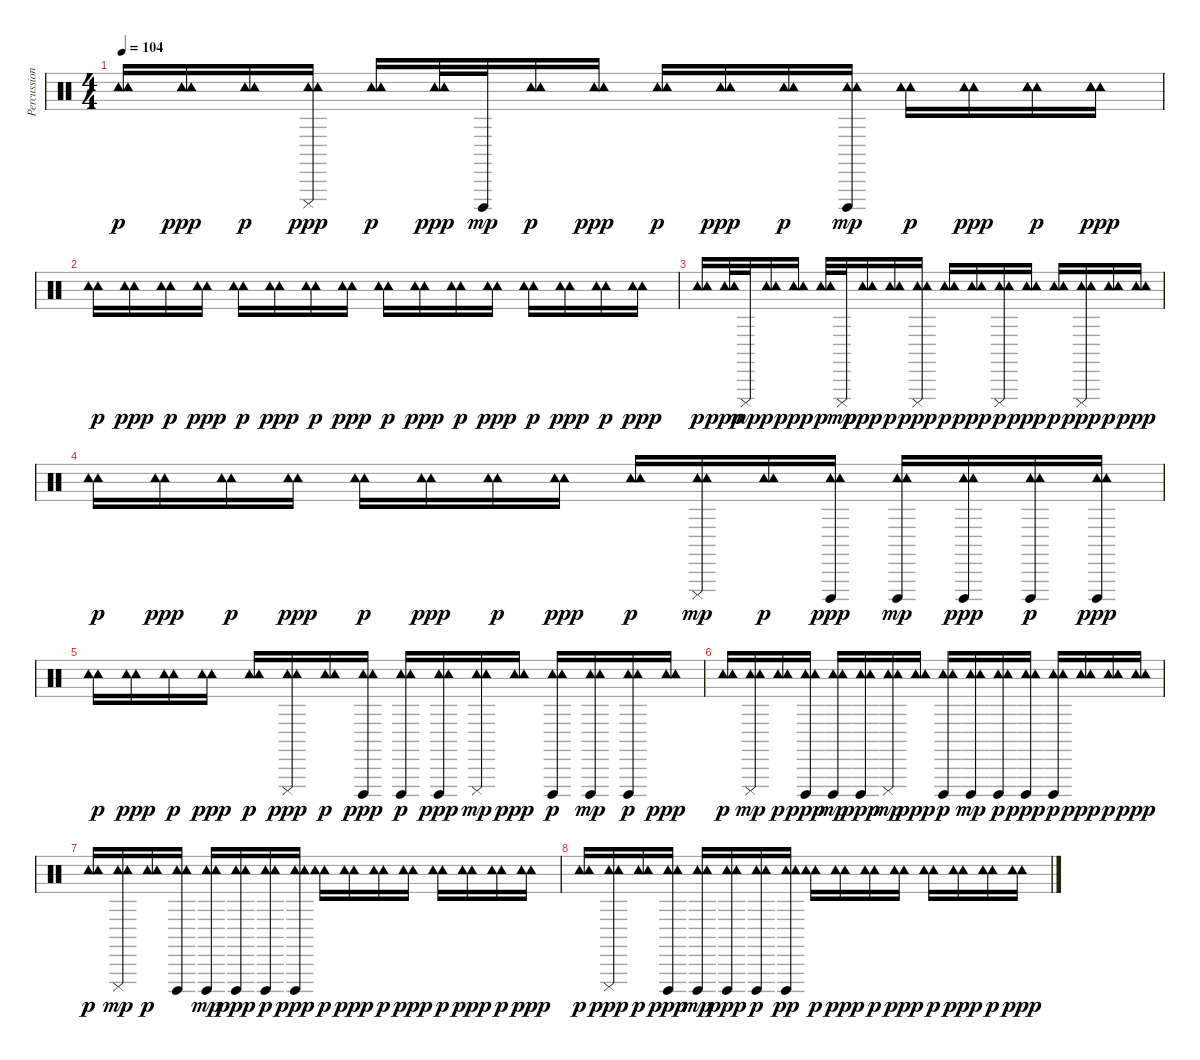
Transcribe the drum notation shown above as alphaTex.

\track ("Percussion & Drums" "Percussion") {instrument percussion}
\staff {score}
\articulation defaults
\ts (4 4)
\tempo 104
\clef neutral
\ks c
("Tambourine (hit)" "Tambourine (hit)").16{dy p} ("Tambourine (hit)" "Tambourine (hit)").16{dy ppp} ("Tambourine (hit)" "Tambourine (hit)").16{dy p} ("Cuica (mute)" "Tambourine (hit)" "Tambourine (hit)").16{dy ppp} ("Tambourine (hit)" "Tambourine (hit)").16{dy p} ("Tambourine (hit)" "Tambourine (hit)").32{dy ppp} "Cuica (open)".32{dy mp} ("Tambourine (hit)" "Tambourine (hit)").16{dy p} ("Tambourine (hit)" "Tambourine (hit)").16{dy ppp} ("Tambourine (hit)" "Tambourine (hit)").16{dy p} ("Tambourine (hit)" "Tambourine (hit)").16{dy ppp} ("Tambourine (hit)" "Tambourine (hit)").16{dy p} ("Tambourine (hit)" "Tambourine (hit)" "Cuica (open)").16{dy mp} ("Tambourine (hit)" "Tambourine (hit)").16{dy p} ("Tambourine (hit)" "Tambourine (hit)").16{dy ppp} ("Tambourine (hit)" "Tambourine (hit)" "Tambourine (hit)" "Tambourine (hit)").16{dy p} ("Tambourine (hit)" "Tambourine (hit)" "Tambourine (hit)" "Tambourine (hit)").16{dy ppp} |
("Tambourine (hit)" "Tambourine (hit)").16{dy p} ("Tambourine (hit)" "Tambourine (hit)").16{dy ppp} ("Tambourine (hit)" "Tambourine (hit)").16{dy p} ("Tambourine (hit)" "Tambourine (hit)").16{dy ppp} ("Tambourine (hit)" "Tambourine (hit)").16{dy p} ("Tambourine (hit)" "Tambourine (hit)").16{dy ppp} ("Tambourine (hit)" "Tambourine (hit)").16{dy p} ("Tambourine (hit)" "Tambourine (hit)").16{dy ppp} ("Tambourine (hit)" "Tambourine (hit)").16{dy p} ("Tambourine (hit)" "Tambourine (hit)").16{dy ppp} ("Tambourine (hit)" "Tambourine (hit)").16{dy p} ("Tambourine (hit)" "Tambourine (hit)").16{dy ppp} ("Tambourine (hit)" "Tambourine (hit)").16{dy p} ("Tambourine (hit)" "Tambourine (hit)").16{dy ppp} ("Tambourine (hit)" "Tambourine (hit)").16{dy p} ("Tambourine (hit)" "Tambourine (hit)").16{dy ppp} |
("Tambourine (hit)" "Tambourine (hit)").16{dy p} ("Tambourine (hit)" "Tambourine (hit)").32{dy ppp} "Cuica (mute)".32{dy mp} ("Tambourine (hit)" "Tambourine (hit)").16{dy p} ("Tambourine (hit)" "Tambourine (hit)").16{dy ppp} ("Tambourine (hit)" "Tambourine (hit)").32{dy p} "Cuica (mute)".32{dy mp} ("Tambourine (hit)" "Tambourine (hit)").16{dy ppp} ("Tambourine (hit)" "Tambourine (hit)").16{dy p} ("Cuica (mute)" "Tambourine (hit)" "Tambourine (hit)").16{dy ppp} ("Tambourine (hit)" "Tambourine (hit)").16{dy p} ("Tambourine (hit)" "Tambourine (hit)").16{dy ppp} ("Cuica (mute)" "Tambourine (hit)" "Tambourine (hit)").16{dy p} ("Tambourine (hit)" "Tambourine (hit)").16{dy ppp} ("Tambourine (hit)" "Tambourine (hit)").16{dy p} ("Cuica (mute)" "Tambourine (hit)" "Tambourine (hit)").16{dy ppp} ("Tambourine (hit)" "Tambourine (hit)").16{dy p} ("Tambourine (hit)" "Tambourine (hit)").16{dy ppp} |
("Tambourine (hit)" "Tambourine (hit)").16{dy p} ("Tambourine (hit)" "Tambourine (hit)").16{dy ppp} ("Tambourine (hit)" "Tambourine (hit)").16{dy p} ("Tambourine (hit)" "Tambourine (hit)").16{dy ppp} ("Tambourine (hit)" "Tambourine (hit)").16{dy p} ("Tambourine (hit)" "Tambourine (hit)").16{dy ppp} ("Tambourine (hit)" "Tambourine (hit)").16{dy p} ("Tambourine (hit)" "Tambourine (hit)").16{dy ppp} ("Tambourine (hit)" "Tambourine (hit)").16{dy p} ("Tambourine (hit)" "Tambourine (hit)" "Cuica (mute)").16{dy mp} ("Tambourine (hit)" "Tambourine (hit)").16{dy p} ("Tambourine (hit)" "Cuica (open)" "Tambourine (hit)").16{dy ppp} ("Tambourine (hit)" "Tambourine (hit)" "Cuica (open)").16{dy mp} ("Cuica (open)" "Tambourine (hit)" "Tambourine (hit)").16{dy ppp} ("Cuica (open)" "Tambourine (hit)" "Tambourine (hit)").16{dy p} ("Tambourine (hit)" "Cuica (open)" "Tambourine (hit)").16{dy ppp} |
("Tambourine (hit)" "Tambourine (hit)").16{dy p} ("Tambourine (hit)" "Tambourine (hit)").16{dy ppp} ("Tambourine (hit)" "Tambourine (hit)").16{dy p} ("Tambourine (hit)" "Tambourine (hit)").16{dy ppp} ("Tambourine (hit)" "Tambourine (hit)").16{dy p} ("Tambourine (hit)" "Cuica (mute)" "Tambourine (hit)").16{dy ppp} ("Tambourine (hit)" "Tambourine (hit)").16{dy p} ("Cuica (open)" "Tambourine (hit)" "Tambourine (hit)").16{dy ppp} ("Cuica (open)" "Tambourine (hit)" "Tambourine (hit)").16{dy p} ("Cuica (open)" "Tambourine (hit)" "Tambourine (hit)").16{dy ppp} ("Tambourine (hit)" "Tambourine (hit)" "Cuica (mute)").16{dy mp} ("Tambourine (hit)" "Tambourine (hit)").16{dy ppp} ("Tambourine (hit)" "Cuica (open)" "Tambourine (hit)").16{dy p} ("Tambourine (hit)" "Tambourine (hit)" "Cuica (open)").16{dy mp} ("Tambourine (hit)" "Cuica (open)" "Tambourine (hit)").16{dy p} ("Tambourine (hit)" "Tambourine (hit)").16{dy ppp} |
("Tambourine (hit)" "Tambourine (hit)").16{dy p} ("Tambourine (hit)" "Tambourine (hit)" "Cuica (mute)").16{dy mp} ("Tambourine (hit)" "Tambourine (hit)").16{dy p} ("Tambourine (hit)" "Cuica (open)" "Tambourine (hit)").16{dy ppp} ("Tambourine (hit)" "Tambourine (hit)" "Cuica (open)").16{dy mp} ("Tambourine (hit)" "Cuica (open)" "Tambourine (hit)").16{dy ppp} ("Tambourine (hit)" "Tambourine (hit)" "Cuica (mute)").16{dy mp} ("Tambourine (hit)" "Tambourine (hit)").16{dy ppp} ("Tambourine (hit)" "Cuica (open)" "Tambourine (hit)").16{dy p} ("Tambourine (hit)" "Tambourine (hit)" "Cuica (open)").16{dy mp} ("Tambourine (hit)" "Cuica (open)" "Tambourine (hit)").16{dy p} ("Tambourine (hit)" "Cuica (open)" "Tambourine (hit)").16{dy ppp} ("Cuica (open)" "Tambourine (hit)" "Tambourine (hit)").16{dy p} ("Tambourine (hit)" "Tambourine (hit)").16{dy ppp} ("Tambourine (hit)" "Tambourine (hit)").16{dy p} ("Tambourine (hit)" "Tambourine (hit)").16{dy ppp volume 13} |
("Tambourine (hit)" "Tambourine (hit)").16{dy p} ("Tambourine (hit)" "Tambourine (hit)" "Cuica (mute)").16{dy mp volume 12} ("Tambourine (hit)" "Tambourine (hit)").16{dy p volume 12} ("Tambourine (hit)" "Cuica (open)" "Tambourine (hit)").16 ("Tambourine (hit)" "Tambourine (hit)" "Cuica (open)").16{dy mp volume 12} ("Tambourine (hit)" "Cuica (open)" "Tambourine (hit)").16{dy ppp volume 12} ("Tambourine (hit)" "Tambourine (hit)" "Cuica (open)").16{dy p} ("Tambourine (hit)" "Cuica (open)" "Tambourine (hit)").16{dy ppp volume 12} ("Tambourine (hit)" "Tambourine (hit)").16{dy p volume 12} ("Tambourine (hit)" "Tambourine (hit)").16{dy ppp volume 12} ("Tambourine (hit)" "Tambourine (hit)").16{dy p} ("Tambourine (hit)" "Tambourine (hit)").16{dy ppp volume 12} ("Tambourine (hit)" "Tambourine (hit)").16{dy p volume 12} ("Tambourine (hit)" "Tambourine (hit)").16{dy ppp} ("Tambourine (hit)" "Tambourine (hit)").16{dy p volume 11} ("Tambourine (hit)" "Tambourine (hit)").16{dy ppp volume 11} |
("Tambourine (hit)" "Tambourine (hit)").16{dy p volume 11} ("Cuica (mute)" "Tambourine (hit)" "Tambourine (hit)").16{dy ppp} ("Tambourine (hit)" "Tambourine (hit)").16{dy p volume 11} ("Cuica (open)" "Tambourine (hit)" "Tambourine (hit)").16{dy ppp volume 11} ("Tambourine (hit)" "Tambourine (hit)" "Cuica (open)").16{dy mp} ("Tambourine (hit)" "Cuica (open)" "Tambourine (hit)").16{dy ppp volume 11} ("Tambourine (hit)" "Cuica (open)" "Tambourine (hit)").16{dy p volume 11} ("Tambourine (hit)" "Tambourine (hit)" "Cuica (open)").16{dy pp volume 10} ("Tambourine (hit)" "Tambourine (hit)").16{dy p} ("Tambourine (hit)" "Tambourine (hit)").16{dy ppp volume 10} ("Tambourine (hit)" "Tambourine (hit)").16{dy p volume 10} ("Tambourine (hit)" "Tambourine (hit)").16{dy ppp} ("Tambourine (hit)" "Tambourine (hit)").16{dy p volume 10} ("Tambourine (hit)" "Tambourine (hit)").16{dy ppp volume 10} ("Tambourine (hit)" "Tambourine (hit)").16{dy p volume 10} ("Tambourine (hit)" "Tambourine (hit)").16{dy ppp}
